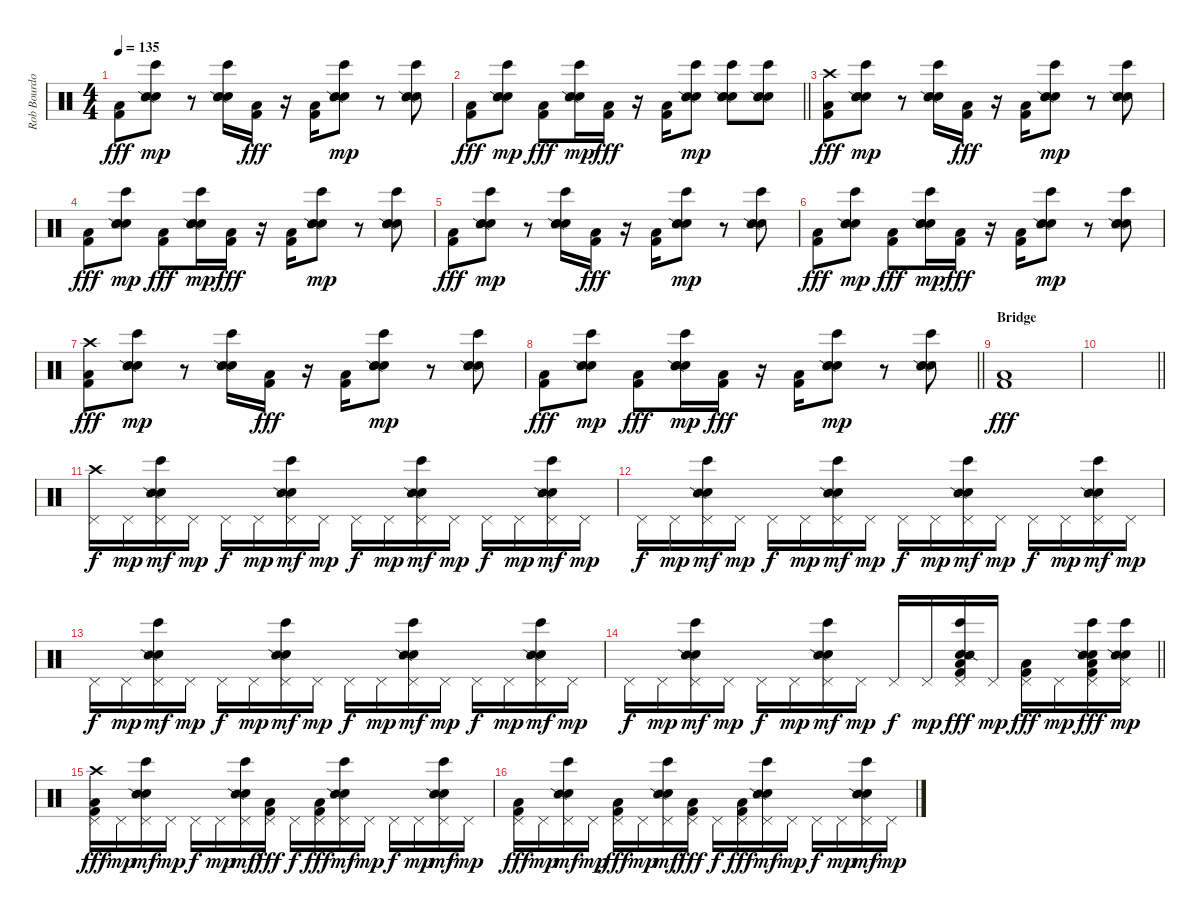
\track ("Rob Bourdon - Beats & Drums" "Rob Bourdo") {instrument percussion}
\staff {score}
\articulation defaults
\ts (4 4)
\tempo 135
\clef neutral
\ks c
("Low Floor Tom (hit)" "Kick (hit) 2").8{dy fff} ("Bongo High (hit)" "Electric Snare (hit)" "Snare (side stick) 2" "Hand Clap (hit)").8{dy mp} r.8 ("Bongo High (hit)" "Electric Snare (hit)" "Snare (side stick) 2" "Hand Clap (hit)").16 ("Low Floor Tom (hit)" "Kick (hit) 2").16{dy fff} r.16 ("Low Floor Tom (hit)" "Kick (hit) 2").16 ("Bongo High (hit)" "Electric Snare (hit)" "Snare (side stick) 2" "Hand Clap (hit)").8{dy mp} r.8 ("Bongo High (hit)" "Electric Snare (hit)" "Snare (side stick) 2" "Hand Clap (hit)").8 |
\barLineRight lightlight
("Low Floor Tom (hit)" "Kick (hit) 2").8{dy fff} ("Bongo High (hit)" "Electric Snare (hit)" "Snare (side stick) 2" "Hand Clap (hit)").8{dy mp} ("Low Floor Tom (hit)" "Kick (hit) 2").8{dy fff} ("Bongo High (hit)" "Electric Snare (hit)" "Snare (side stick) 2" "Hand Clap (hit)").16{dy mp} ("Low Floor Tom (hit)" "Kick (hit) 2").16{dy fff} r.16 ("Low Floor Tom (hit)" "Kick (hit) 2").16 ("Bongo High (hit)" "Electric Snare (hit)" "Snare (side stick) 2" "Hand Clap (hit)").8{dy mp} ("Bongo High (hit)" "Electric Snare (hit)" "Snare (side stick) 2" "Hand Clap (hit)").8 ("Bongo High (hit)" "Electric Snare (hit)" "Snare (side stick) 2" "Hand Clap (hit)").8 |
\section ("" "")
("Low Floor Tom (hit)" "Crash high (hit)" "Kick (hit) 2").8{dy fff} ("Bongo High (hit)" "Electric Snare (hit)" "Snare (side stick) 2" "Hand Clap (hit)").8{dy mp} r.8 ("Bongo High (hit)" "Electric Snare (hit)" "Snare (side stick) 2" "Hand Clap (hit)").16 ("Low Floor Tom (hit)" "Kick (hit) 2").16{dy fff} r.16 ("Low Floor Tom (hit)" "Kick (hit) 2").16 ("Bongo High (hit)" "Electric Snare (hit)" "Snare (side stick) 2" "Hand Clap (hit)").8{dy mp} r.8 ("Bongo High (hit)" "Electric Snare (hit)" "Snare (side stick) 2" "Hand Clap (hit)").8 |
("Low Floor Tom (hit)" "Kick (hit) 2").8{dy fff} ("Bongo High (hit)" "Electric Snare (hit)" "Snare (side stick) 2" "Hand Clap (hit)").8{dy mp} ("Low Floor Tom (hit)" "Kick (hit) 2").8{dy fff} ("Bongo High (hit)" "Electric Snare (hit)" "Snare (side stick) 2" "Hand Clap (hit)").16{dy mp} ("Low Floor Tom (hit)" "Kick (hit) 2").16{dy fff} r.16 ("Low Floor Tom (hit)" "Kick (hit) 2").16 ("Bongo High (hit)" "Electric Snare (hit)" "Snare (side stick) 2" "Hand Clap (hit)").8{dy mp} r.8 ("Bongo High (hit)" "Electric Snare (hit)" "Snare (side stick) 2" "Hand Clap (hit)").8 |
("Low Floor Tom (hit)" "Kick (hit) 2").8{dy fff} ("Bongo High (hit)" "Electric Snare (hit)" "Snare (side stick) 2" "Hand Clap (hit)").8{dy mp} r.8 ("Bongo High (hit)" "Electric Snare (hit)" "Snare (side stick) 2" "Hand Clap (hit)").16 ("Low Floor Tom (hit)" "Kick (hit) 2").16{dy fff} r.16 ("Low Floor Tom (hit)" "Kick (hit) 2").16 ("Bongo High (hit)" "Electric Snare (hit)" "Snare (side stick) 2" "Hand Clap (hit)").8{dy mp} r.8 ("Bongo High (hit)" "Electric Snare (hit)" "Snare (side stick) 2" "Hand Clap (hit)").8 |
("Low Floor Tom (hit)" "Kick (hit) 2").8{dy fff} ("Bongo High (hit)" "Electric Snare (hit)" "Snare (side stick) 2" "Hand Clap (hit)").8{dy mp} ("Low Floor Tom (hit)" "Kick (hit) 2").8{dy fff} ("Bongo High (hit)" "Electric Snare (hit)" "Snare (side stick) 2" "Hand Clap (hit)").16{dy mp} ("Low Floor Tom (hit)" "Kick (hit) 2").16{dy fff} r.16 ("Low Floor Tom (hit)" "Kick (hit) 2").16 ("Bongo High (hit)" "Electric Snare (hit)" "Snare (side stick) 2" "Hand Clap (hit)").8{dy mp} r.8 ("Bongo High (hit)" "Electric Snare (hit)" "Snare (side stick) 2" "Hand Clap (hit)").8 |
("Low Floor Tom (hit)" "Crash high (hit)" "Kick (hit) 2").8{dy fff} ("Bongo High (hit)" "Electric Snare (hit)" "Snare (side stick) 2" "Hand Clap (hit)").8{dy mp} r.8 ("Bongo High (hit)" "Electric Snare (hit)" "Snare (side stick) 2" "Hand Clap (hit)").16 ("Low Floor Tom (hit)" "Kick (hit) 2").16{dy fff} r.16 ("Low Floor Tom (hit)" "Kick (hit) 2").16 ("Bongo High (hit)" "Electric Snare (hit)" "Snare (side stick) 2" "Hand Clap (hit)").8{dy mp} r.8 ("Bongo High (hit)" "Electric Snare (hit)" "Snare (side stick) 2" "Hand Clap (hit)").8 |
\barLineRight lightlight
("Low Floor Tom (hit)" "Kick (hit) 2").8{dy fff} ("Bongo High (hit)" "Electric Snare (hit)" "Snare (side stick) 2" "Hand Clap (hit)").8{dy mp} ("Low Floor Tom (hit)" "Kick (hit) 2").8{dy fff} ("Bongo High (hit)" "Electric Snare (hit)" "Snare (side stick) 2" "Hand Clap (hit)").16{dy mp} ("Low Floor Tom (hit)" "Kick (hit) 2").16{dy fff} r.16 ("Low Floor Tom (hit)" "Kick (hit) 2").16 ("Bongo High (hit)" "Electric Snare (hit)" "Snare (side stick) 2" "Hand Clap (hit)").8{dy mp} r.8 ("Bongo High (hit)" "Electric Snare (hit)" "Snare (side stick) 2" "Hand Clap (hit)").8 |
\section ("" "Bridge")
("Low Floor Tom (hit)" "Kick (hit) 2").1{dy fff} |
\barLineRight lightlight
|
("Crash high (hit)" "Pedal Hi-Hat (hit)").16{dy f} "Pedal Hi-Hat (hit)".16{dy mp} ("Bongo High (hit)" "Electric Snare (hit)" "Snare (side stick) 2" "Pedal Hi-Hat (hit)").16{dy mf} "Pedal Hi-Hat (hit)".16{dy mp} "Pedal Hi-Hat (hit)".16{dy f} "Pedal Hi-Hat (hit)".16{dy mp} ("Bongo High (hit)" "Electric Snare (hit)" "Snare (side stick) 2" "Pedal Hi-Hat (hit)").16{dy mf} "Pedal Hi-Hat (hit)".16{dy mp} "Pedal Hi-Hat (hit)".16{dy f} "Pedal Hi-Hat (hit)".16{dy mp} ("Bongo High (hit)" "Electric Snare (hit)" "Snare (side stick) 2" "Pedal Hi-Hat (hit)").16{dy mf} "Pedal Hi-Hat (hit)".16{dy mp} "Pedal Hi-Hat (hit)".16{dy f} "Pedal Hi-Hat (hit)".16{dy mp} ("Bongo High (hit)" "Electric Snare (hit)" "Snare (side stick) 2" "Pedal Hi-Hat (hit)").16{dy mf} "Pedal Hi-Hat (hit)".16{dy mp} |
"Pedal Hi-Hat (hit)".16{dy f} "Pedal Hi-Hat (hit)".16{dy mp} ("Bongo High (hit)" "Electric Snare (hit)" "Snare (side stick) 2" "Pedal Hi-Hat (hit)").16{dy mf} "Pedal Hi-Hat (hit)".16{dy mp} "Pedal Hi-Hat (hit)".16{dy f} "Pedal Hi-Hat (hit)".16{dy mp} ("Bongo High (hit)" "Electric Snare (hit)" "Snare (side stick) 2" "Pedal Hi-Hat (hit)").16{dy mf} "Pedal Hi-Hat (hit)".16{dy mp} "Pedal Hi-Hat (hit)".16{dy f} "Pedal Hi-Hat (hit)".16{dy mp} ("Bongo High (hit)" "Electric Snare (hit)" "Snare (side stick) 2" "Pedal Hi-Hat (hit)").16{dy mf} "Pedal Hi-Hat (hit)".16{dy mp} "Pedal Hi-Hat (hit)".16{dy f} "Pedal Hi-Hat (hit)".16{dy mp} ("Bongo High (hit)" "Electric Snare (hit)" "Snare (side stick) 2" "Pedal Hi-Hat (hit)").16{dy mf} "Pedal Hi-Hat (hit)".16{dy mp} |
"Pedal Hi-Hat (hit)".16{dy f} "Pedal Hi-Hat (hit)".16{dy mp} ("Bongo High (hit)" "Electric Snare (hit)" "Snare (side stick) 2" "Pedal Hi-Hat (hit)").16{dy mf} "Pedal Hi-Hat (hit)".16{dy mp} "Pedal Hi-Hat (hit)".16{dy f} "Pedal Hi-Hat (hit)".16{dy mp} ("Bongo High (hit)" "Electric Snare (hit)" "Snare (side stick) 2" "Pedal Hi-Hat (hit)").16{dy mf} "Pedal Hi-Hat (hit)".16{dy mp} "Pedal Hi-Hat (hit)".16{dy f} "Pedal Hi-Hat (hit)".16{dy mp} ("Bongo High (hit)" "Electric Snare (hit)" "Snare (side stick) 2" "Pedal Hi-Hat (hit)").16{dy mf} "Pedal Hi-Hat (hit)".16{dy mp} "Pedal Hi-Hat (hit)".16{dy f} "Pedal Hi-Hat (hit)".16{dy mp} ("Bongo High (hit)" "Electric Snare (hit)" "Snare (side stick) 2" "Pedal Hi-Hat (hit)").16{dy mf} "Pedal Hi-Hat (hit)".16{dy mp} |
\barLineRight lightlight "Pedal Hi-Hat (hit)".16{dy f} "Pedal Hi-Hat (hit)".16{dy mp}
("Bongo High (hit)" "Electric Snare (hit)" "Snare (side stick) 2" "Pedal Hi-Hat (hit)").16{dy mf} "Pedal Hi-Hat (hit)".16{dy mp} "Pedal Hi-Hat (hit)".16{dy f} "Pedal Hi-Hat (hit)".16{dy mp} ("Bongo High (hit)" "Electric Snare (hit)" "Snare (side stick) 2" "Pedal Hi-Hat (hit)").16{dy mf} "Pedal Hi-Hat (hit)".16{dy mp} "Pedal Hi-Hat (hit)".16{dy f} "Pedal Hi-Hat (hit)".16{dy mp} ("Low Floor Tom (hit)" "Bongo High (hit)" "Electric Snare (hit)" "Snare (side stick) 2" "Pedal Hi-Hat (hit)" "Kick (hit) 2").16{dy fff} "Pedal Hi-Hat (hit)".16{dy mp} ("Low Floor Tom (hit)" "Pedal Hi-Hat (hit)" "Kick (hit) 2").16{dy fff} "Pedal Hi-Hat (hit)".16{dy mp} ("Low Floor Tom (hit)" "Bongo High (hit)" "Electric Snare (hit)" "Snare (side stick) 2" "Pedal Hi-Hat (hit)" "Kick (hit) 2").16{dy fff} ("Bongo High (hit)" "Electric Snare (hit)" "Snare (side stick) 2" "Pedal Hi-Hat (hit)").16{dy mp} |
("Crash high (hit)" "Low Floor Tom (hit)" "Pedal Hi-Hat (hit)" "Kick (hit) 2").16{dy fff} "Pedal Hi-Hat (hit)".16{dy mp} ("Bongo High (hit)" "Electric Snare (hit)" "Snare (side stick) 2" "Pedal Hi-Hat (hit)").16{dy mf} "Pedal Hi-Hat (hit)".16{dy mp} "Pedal Hi-Hat (hit)".16{dy f} "Pedal Hi-Hat (hit)".16{dy mp} ("Bongo High (hit)" "Electric Snare (hit)" "Snare (side stick) 2" "Pedal Hi-Hat (hit)").16{dy mf} ("Low Floor Tom (hit)" "Pedal Hi-Hat (hit)" "Kick (hit) 2").16{dy fff} "Pedal Hi-Hat (hit)".16{dy f} ("Low Floor Tom (hit)" "Pedal Hi-Hat (hit)" "Kick (hit) 2").16{dy fff} ("Bongo High (hit)" "Electric Snare (hit)" "Snare (side stick) 2" "Pedal Hi-Hat (hit)").16{dy mf} "Pedal Hi-Hat (hit)".16{dy mp} "Pedal Hi-Hat (hit)".16{dy f} "Pedal Hi-Hat (hit)".16{dy mp} ("Bongo High (hit)" "Electric Snare (hit)" "Snare (side stick) 2" "Pedal Hi-Hat (hit)").16{dy mf} "Pedal Hi-Hat (hit)".16{dy mp} |
("Low Floor Tom (hit)" "Pedal Hi-Hat (hit)" "Kick (hit) 2").16{dy fff} "Pedal Hi-Hat (hit)".16{dy mp} ("Bongo High (hit)" "Electric Snare (hit)" "Snare (side stick) 2" "Pedal Hi-Hat (hit)").16{dy mf} "Pedal Hi-Hat (hit)".16{dy mp} ("Low Floor Tom (hit)" "Pedal Hi-Hat (hit)" "Kick (hit) 2").16{dy fff} "Pedal Hi-Hat (hit)".16{dy mp} ("Bongo High (hit)" "Electric Snare (hit)" "Snare (side stick) 2" "Pedal Hi-Hat (hit)").16{dy mf} ("Low Floor Tom (hit)" "Pedal Hi-Hat (hit)" "Kick (hit) 2").16{dy fff} "Pedal Hi-Hat (hit)".16{dy f} ("Low Floor Tom (hit)" "Pedal Hi-Hat (hit)" "Kick (hit) 2").16{dy fff} ("Bongo High (hit)" "Electric Snare (hit)" "Snare (side stick) 2" "Pedal Hi-Hat (hit)").16{dy mf} "Pedal Hi-Hat (hit)".16{dy mp} "Pedal Hi-Hat (hit)".16{dy f} "Pedal Hi-Hat (hit)".16{dy mp} ("Bongo High (hit)" "Electric Snare (hit)" "Snare (side stick) 2" "Pedal Hi-Hat (hit)").16{dy mf} "Pedal Hi-Hat (hit)".16{dy mp}
